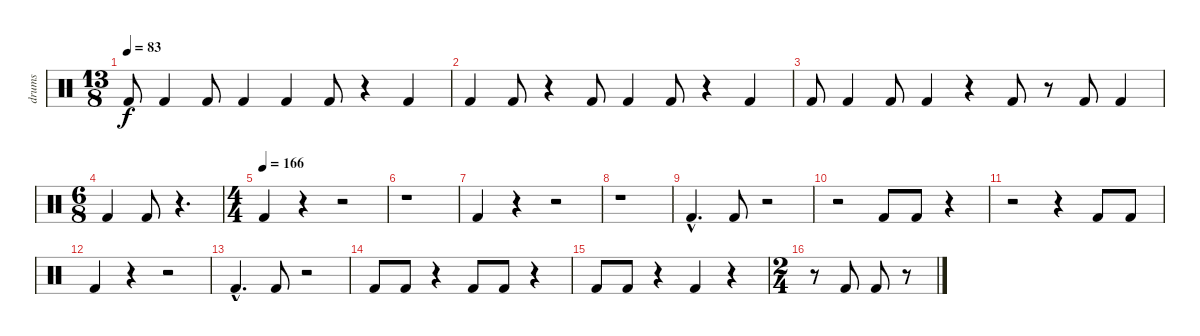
\track ("drums" "drums") {instrument percussion}
\staff {score}
\articulation defaults
\ts (13 8)
\tempo 83
\clef neutral
\ks c "Kick (hit) 2".8{dy f} "Kick (hit) 2".4 "Kick (hit) 2".8 "Kick (hit) 2".4 "Kick (hit) 2".4 "Kick (hit) 2".8
r.4 "Kick (hit) 2".4 |
"Kick (hit) 2".4 "Kick (hit) 2".8 r.4 "Kick (hit) 2".8 "Kick (hit) 2".4 "Kick (hit) 2".8 r.4 "Kick (hit) 2".4 |
"Kick (hit) 2".8 "Kick (hit) 2".4 "Kick (hit) 2".8 "Kick (hit) 2".4 r.4 "Kick (hit) 2".8 r.8 "Kick (hit) 2".8 "Kick (hit) 2".4 |
\ts (6 8)
"Kick (hit) 2".4 "Kick (hit) 2".8 r.4{d} |
\ts (4 4)
\tempo (166)
"Kick (hit) 2".4 r.4 r.2 |
r.1 |
"Kick (hit) 2".4 r.4 r.2 |
r.1 |
"Kick (hit) 2"{hac}.4{d} "Kick (hit) 2".8 r.2 |
r.2 "Kick (hit) 2".8 "Kick (hit) 2".8 r.4 |
r.2 r.4 "Kick (hit) 2".8 "Kick (hit) 2".8 |
"Kick (hit) 2".4 r.4 r.2 |
"Kick (hit) 2"{hac}.4{d} "Kick (hit) 2".8 r.2 |
"Kick (hit) 2".8 "Kick (hit) 2".8 r.4 "Kick (hit) 2".8 "Kick (hit) 2".8 r.4 |
"Kick (hit) 2".8 "Kick (hit) 2".8 r.4 "Kick (hit) 2".4 r.4 |
\ts (2 4)
r.8 "Kick (hit) 2".8 "Kick (hit) 2".8 r.8
